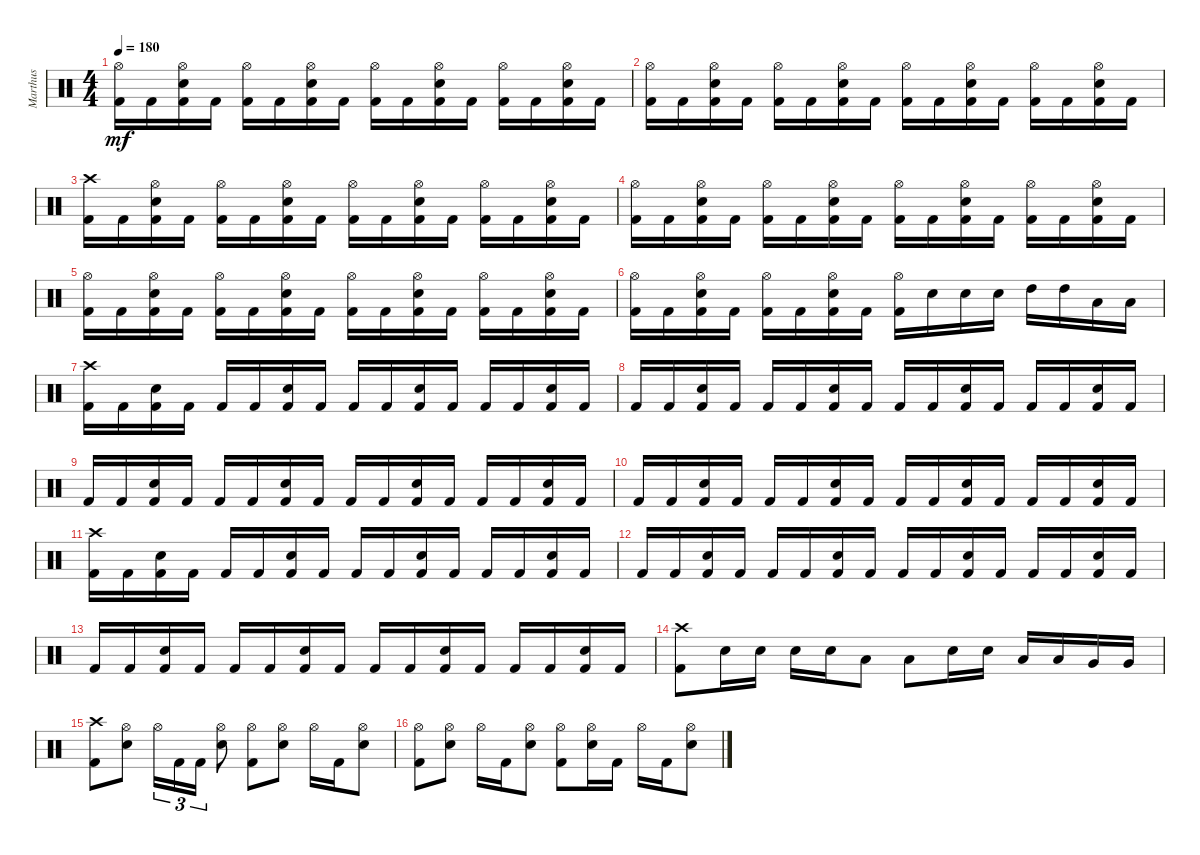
\track ("Marthus" "Marthus") {instrument percussion}
\staff {score}
\articulation defaults
\ts (4 4)
\tempo 180
\clef neutral
\ks c
("Hi-Hat (open)" "Kick (hit) 2").16{dy mf} "Kick (hit) 2".16 ("Hi-Hat (open)" "Electric Snare (hit)" "Kick (hit) 2").16 "Kick (hit) 2".16 ("Hi-Hat (open)" "Kick (hit) 2").16 "Kick (hit) 2".16 ("Hi-Hat (open)" "Electric Snare (hit)" "Kick (hit) 2").16 "Kick (hit) 2".16 ("Hi-Hat (open)" "Kick (hit) 2").16 "Kick (hit) 2".16 ("Hi-Hat (open)" "Electric Snare (hit)" "Kick (hit) 2").16 "Kick (hit) 2".16 ("Hi-Hat (open)" "Kick (hit) 2").16 "Kick (hit) 2".16 ("Hi-Hat (open)" "Electric Snare (hit)" "Kick (hit) 2").16 "Kick (hit) 2".16 |
("Hi-Hat (open)" "Kick (hit) 2").16 "Kick (hit) 2".16 ("Hi-Hat (open)" "Electric Snare (hit)" "Kick (hit) 2").16 "Kick (hit) 2".16 ("Hi-Hat (open)" "Kick (hit) 2").16 "Kick (hit) 2".16 ("Hi-Hat (open)" "Electric Snare (hit)" "Kick (hit) 2").16 "Kick (hit) 2".16 ("Hi-Hat (open)" "Kick (hit) 2").16 "Kick (hit) 2".16 ("Hi-Hat (open)" "Electric Snare (hit)" "Kick (hit) 2").16 "Kick (hit) 2".16 ("Hi-Hat (open)" "Kick (hit) 2").16 "Kick (hit) 2".16 ("Hi-Hat (open)" "Electric Snare (hit)" "Kick (hit) 2").16 "Kick (hit) 2".16 |
("Crash high (hit)" "Kick (hit) 2").16 "Kick (hit) 2".16 ("Hi-Hat (open)" "Electric Snare (hit)" "Kick (hit) 2").16 "Kick (hit) 2".16 ("Hi-Hat (open)" "Kick (hit) 2").16 "Kick (hit) 2".16 ("Hi-Hat (open)" "Electric Snare (hit)" "Kick (hit) 2").16 "Kick (hit) 2".16 ("Hi-Hat (open)" "Kick (hit) 2").16 "Kick (hit) 2".16 ("Hi-Hat (open)" "Electric Snare (hit)" "Kick (hit) 2").16 "Kick (hit) 2".16 ("Hi-Hat (open)" "Kick (hit) 2").16 "Kick (hit) 2".16 ("Hi-Hat (open)" "Electric Snare (hit)" "Kick (hit) 2").16 "Kick (hit) 2".16 |
("Hi-Hat (open)" "Kick (hit) 2").16 "Kick (hit) 2".16 ("Hi-Hat (open)" "Electric Snare (hit)" "Kick (hit) 2").16 "Kick (hit) 2".16 ("Hi-Hat (open)" "Kick (hit) 2").16 "Kick (hit) 2".16 ("Hi-Hat (open)" "Electric Snare (hit)" "Kick (hit) 2").16 "Kick (hit) 2".16 ("Hi-Hat (open)" "Kick (hit) 2").16 "Kick (hit) 2".16 ("Hi-Hat (open)" "Electric Snare (hit)" "Kick (hit) 2").16 "Kick (hit) 2".16 ("Hi-Hat (open)" "Kick (hit) 2").16 "Kick (hit) 2".16 ("Hi-Hat (open)" "Electric Snare (hit)" "Kick (hit) 2").16 "Kick (hit) 2".16 |
("Hi-Hat (open)" "Kick (hit) 2").16 "Kick (hit) 2".16 ("Hi-Hat (open)" "Electric Snare (hit)" "Kick (hit) 2").16 "Kick (hit) 2".16 ("Hi-Hat (open)" "Kick (hit) 2").16 "Kick (hit) 2".16 ("Hi-Hat (open)" "Electric Snare (hit)" "Kick (hit) 2").16 "Kick (hit) 2".16 ("Hi-Hat (open)" "Kick (hit) 2").16 "Kick (hit) 2".16 ("Hi-Hat (open)" "Electric Snare (hit)" "Kick (hit) 2").16 "Kick (hit) 2".16 ("Hi-Hat (open)" "Kick (hit) 2").16 "Kick (hit) 2".16 ("Hi-Hat (open)" "Electric Snare (hit)" "Kick (hit) 2").16 "Kick (hit) 2".16 |
("Hi-Hat (open)" "Kick (hit) 2").16 "Kick (hit) 2".16 ("Hi-Hat (open)" "Electric Snare (hit)" "Kick (hit) 2").16 "Kick (hit) 2".16 ("Hi-Hat (open)" "Kick (hit) 2").16 "Kick (hit) 2".16 ("Hi-Hat (open)" "Electric Snare (hit)" "Kick (hit) 2").16 "Kick (hit) 2".16 ("Hi-Hat (open)" "Kick (hit) 2").16 "Electric Snare (hit)".16 "Electric Snare (hit)".16 "Electric Snare (hit)".16 "High Tom (hit)".16 "High Tom (hit)".16 "Low Tom (hit)".16 "Low Tom (hit)".16 |
("Crash high (hit)" "Kick (hit) 2").16 "Kick (hit) 2".16 ("Electric Snare (hit)" "Kick (hit) 2").16 "Kick (hit) 2".16 "Kick (hit) 2".16 "Kick (hit) 2".16 ("Electric Snare (hit)" "Kick (hit) 2").16 "Kick (hit) 2".16 "Kick (hit) 2".16 "Kick (hit) 2".16 ("Electric Snare (hit)" "Kick (hit) 2").16 "Kick (hit) 2".16 "Kick (hit) 2".16 "Kick (hit) 2".16 ("Electric Snare (hit)" "Kick (hit) 2").16 "Kick (hit) 2".16 |
"Kick (hit) 2".16 "Kick (hit) 2".16 ("Electric Snare (hit)" "Kick (hit) 2").16 "Kick (hit) 2".16 "Kick (hit) 2".16 "Kick (hit) 2".16 ("Electric Snare (hit)" "Kick (hit) 2").16 "Kick (hit) 2".16 "Kick (hit) 2".16 "Kick (hit) 2".16 ("Electric Snare (hit)" "Kick (hit) 2").16 "Kick (hit) 2".16 "Kick (hit) 2".16 "Kick (hit) 2".16 ("Electric Snare (hit)" "Kick (hit) 2").16 "Kick (hit) 2".16 |
"Kick (hit) 2".16 "Kick (hit) 2".16 ("Electric Snare (hit)" "Kick (hit) 2").16 "Kick (hit) 2".16 "Kick (hit) 2".16 "Kick (hit) 2".16 ("Electric Snare (hit)" "Kick (hit) 2").16 "Kick (hit) 2".16 "Kick (hit) 2".16 "Kick (hit) 2".16 ("Electric Snare (hit)" "Kick (hit) 2").16 "Kick (hit) 2".16 "Kick (hit) 2".16 "Kick (hit) 2".16 ("Electric Snare (hit)" "Kick (hit) 2").16 "Kick (hit) 2".16 |
"Kick (hit) 2".16 "Kick (hit) 2".16 ("Electric Snare (hit)" "Kick (hit) 2").16 "Kick (hit) 2".16 "Kick (hit) 2".16 "Kick (hit) 2".16 ("Electric Snare (hit)" "Kick (hit) 2").16 "Kick (hit) 2".16 "Kick (hit) 2".16 "Kick (hit) 2".16 ("Electric Snare (hit)" "Kick (hit) 2").16 "Kick (hit) 2".16 "Kick (hit) 2".16 "Kick (hit) 2".16 ("Electric Snare (hit)" "Kick (hit) 2").16 "Kick (hit) 2".16 |
("Crash high (hit)" "Kick (hit) 2").16 "Kick (hit) 2".16 ("Electric Snare (hit)" "Kick (hit) 2").16 "Kick (hit) 2".16 "Kick (hit) 2".16 "Kick (hit) 2".16 ("Electric Snare (hit)" "Kick (hit) 2").16 "Kick (hit) 2".16 "Kick (hit) 2".16 "Kick (hit) 2".16 ("Electric Snare (hit)" "Kick (hit) 2").16 "Kick (hit) 2".16 "Kick (hit) 2".16 "Kick (hit) 2".16 ("Electric Snare (hit)" "Kick (hit) 2").16 "Kick (hit) 2".16 |
"Kick (hit) 2".16 "Kick (hit) 2".16 ("Electric Snare (hit)" "Kick (hit) 2").16 "Kick (hit) 2".16 "Kick (hit) 2".16 "Kick (hit) 2".16 ("Electric Snare (hit)" "Kick (hit) 2").16 "Kick (hit) 2".16 "Kick (hit) 2".16 "Kick (hit) 2".16 ("Electric Snare (hit)" "Kick (hit) 2").16 "Kick (hit) 2".16 "Kick (hit) 2".16 "Kick (hit) 2".16 ("Electric Snare (hit)" "Kick (hit) 2").16 "Kick (hit) 2".16 |
"Kick (hit) 2".16 "Kick (hit) 2".16 ("Electric Snare (hit)" "Kick (hit) 2").16 "Kick (hit) 2".16 "Kick (hit) 2".16 "Kick (hit) 2".16 ("Electric Snare (hit)" "Kick (hit) 2").16 "Kick (hit) 2".16 "Kick (hit) 2".16 "Kick (hit) 2".16 ("Electric Snare (hit)" "Kick (hit) 2").16 "Kick (hit) 2".16 "Kick (hit) 2".16 "Kick (hit) 2".16 ("Electric Snare (hit)" "Kick (hit) 2").16 "Kick (hit) 2".16 |
("Crash high (hit)" "Kick (hit) 2").8 "Electric Snare (hit)".16 "Electric Snare (hit)".16 "Electric Snare (hit)".16 "Electric Snare (hit)".16 "Low Tom (hit)".8 "Low Tom (hit)".8 "Electric Snare (hit)".16 "Electric Snare (hit)".16 "Low Tom (hit)".16 "Low Tom (hit)".16 "Very Low Tom (hit)".16 "Very Low Tom (hit)".16 |
("Crash high (hit)" "Kick (hit) 2").8 ("Hi-Hat (open)" "Electric Snare (hit)").8 "Hi-Hat (open)".16{tu (3 2)} "Kick (hit) 2".16{tu (3 2)} "Kick (hit) 2".16{tu (3 2)} ("Hi-Hat (open)" "Electric Snare (hit)").8 ("Hi-Hat (open)" "Kick (hit) 2").8 ("Hi-Hat (open)" "Electric Snare (hit)").8 "Hi-Hat (open)".16 "Kick (hit) 2".16 ("Hi-Hat (open)" "Electric Snare (hit)").8 |
("Hi-Hat (open)" "Kick (hit) 2").8 ("Hi-Hat (open)" "Electric Snare (hit)").8 "Hi-Hat (open)".16 "Kick (hit) 2".16 ("Hi-Hat (open)" "Electric Snare (hit)").8 ("Hi-Hat (open)" "Kick (hit) 2").8 ("Hi-Hat (open)" "Electric Snare (hit)").16 "Kick (hit) 2".16 "Hi-Hat (open)".16 "Kick (hit) 2".16 ("Hi-Hat (open)" "Electric Snare (hit)").8
